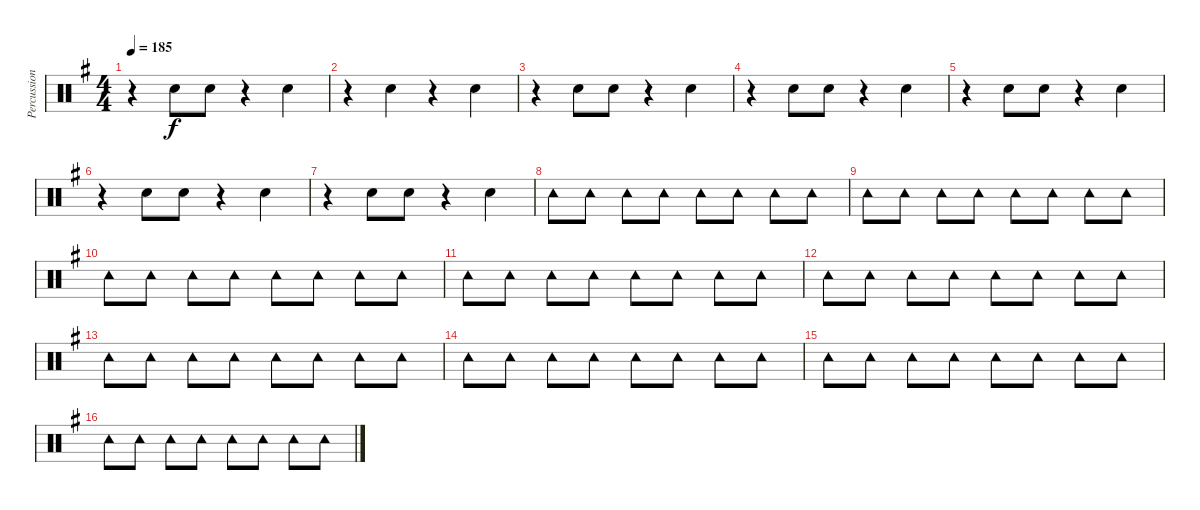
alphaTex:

\track ("Percussion I" "Percussion") {instrument percussion}
\staff {score}
\articulation defaults
\ts (4 4)
\tempo 185
\clef neutral
\ks g
r.4{dy f} "Hand Clap (hit)".8 "Hand Clap (hit)".8 r.4 "Hand Clap (hit)".4 |
r.4 "Hand Clap (hit)".4 r.4 "Hand Clap (hit)".4 |
r.4 "Hand Clap (hit)".8 "Hand Clap (hit)".8 r.4 "Hand Clap (hit)".4 |
r.4 "Hand Clap (hit)".8 "Hand Clap (hit)".8 r.4 "Hand Clap (hit)".4 |
r.4 "Hand Clap (hit)".8 "Hand Clap (hit)".8 r.4 "Hand Clap (hit)".4 |
r.4 "Hand Clap (hit)".8 "Hand Clap (hit)".8 r.4 "Hand Clap (hit)".4 |
r.4 "Hand Clap (hit)".8 "Hand Clap (hit)".8 r.4 "Hand Clap (hit)".4 |
"Tambourine (hit)".8 "Tambourine (hit)".8 "Tambourine (hit)".8 "Tambourine (hit)".8 "Tambourine (hit)".8 "Tambourine (hit)".8 "Tambourine (hit)".8 "Tambourine (hit)".8 |
"Tambourine (hit)".8 "Tambourine (hit)".8 "Tambourine (hit)".8 "Tambourine (hit)".8 "Tambourine (hit)".8 "Tambourine (hit)".8 "Tambourine (hit)".8 "Tambourine (hit)".8 |
"Tambourine (hit)".8 "Tambourine (hit)".8 "Tambourine (hit)".8 "Tambourine (hit)".8 "Tambourine (hit)".8 "Tambourine (hit)".8 "Tambourine (hit)".8 "Tambourine (hit)".8 |
"Tambourine (hit)".8 "Tambourine (hit)".8 "Tambourine (hit)".8 "Tambourine (hit)".8 "Tambourine (hit)".8 "Tambourine (hit)".8 "Tambourine (hit)".8 "Tambourine (hit)".8 |
"Tambourine (hit)".8 "Tambourine (hit)".8 "Tambourine (hit)".8 "Tambourine (hit)".8 "Tambourine (hit)".8 "Tambourine (hit)".8 "Tambourine (hit)".8 "Tambourine (hit)".8 |
"Tambourine (hit)".8 "Tambourine (hit)".8 "Tambourine (hit)".8 "Tambourine (hit)".8 "Tambourine (hit)".8 "Tambourine (hit)".8 "Tambourine (hit)".8 "Tambourine (hit)".8 |
"Tambourine (hit)".8 "Tambourine (hit)".8 "Tambourine (hit)".8 "Tambourine (hit)".8 "Tambourine (hit)".8 "Tambourine (hit)".8 "Tambourine (hit)".8 "Tambourine (hit)".8 |
"Tambourine (hit)".8 "Tambourine (hit)".8 "Tambourine (hit)".8 "Tambourine (hit)".8 "Tambourine (hit)".8 "Tambourine (hit)".8 "Tambourine (hit)".8 "Tambourine (hit)".8 |
"Tambourine (hit)".8 "Tambourine (hit)".8 "Tambourine (hit)".8 "Tambourine (hit)".8 "Tambourine (hit)".8 "Tambourine (hit)".8 "Tambourine (hit)".8 "Tambourine (hit)".8
